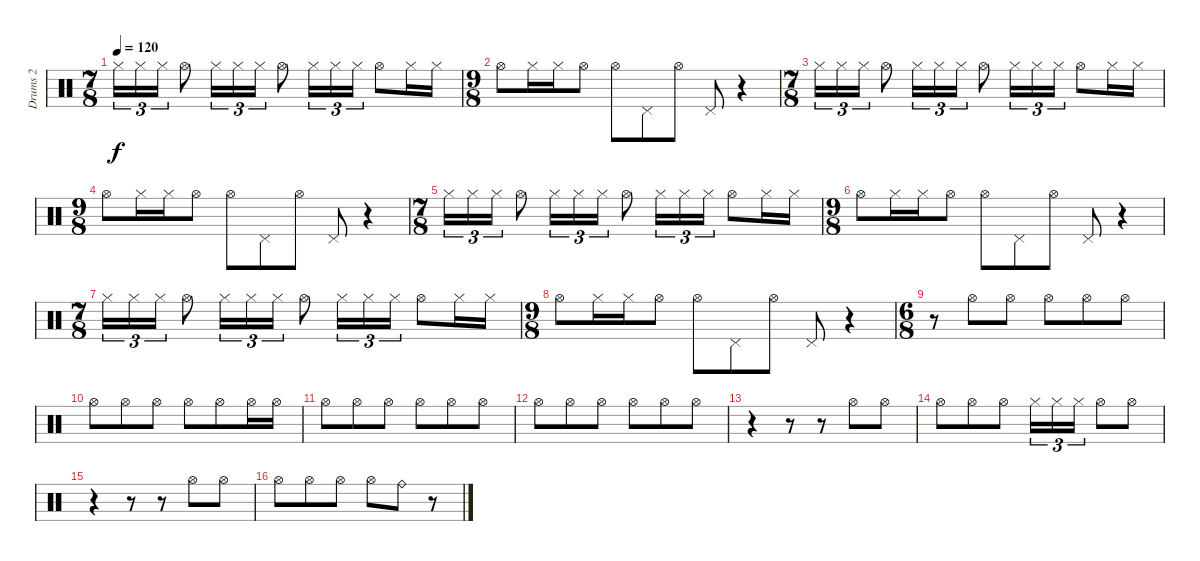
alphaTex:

\track ("Drums 2" "Drums 2") {instrument percussion}
\staff {score}
\articulation defaults
\ts (7 8)
\tempo 120
\clef neutral
\ks c "Hi-Hat (closed)".16{tu (3 2) dy f} "Hi-Hat (closed)".16{tu (3 2)} "Hi-Hat (closed)".16{tu (3 2)} "Hi-Hat (open)".8 "Hi-Hat (closed)".16{tu (3 2)} "Hi-Hat (closed)".16{tu (3 2)} "Hi-Hat (closed)".16{tu (3 2)} "Hi-Hat (open)".8 "Hi-Hat (closed)".16{tu (3 2)} "Hi-Hat (closed)".16{tu (3 2)} "Hi-Hat (closed)".16{tu (3 2)} "Hi-Hat (open)".8 "Hi-Hat (closed)".16 "Hi-Hat (closed)".16
|
\ts (9 8)
"Hi-Hat (open)".8 "Hi-Hat (closed)".16 "Hi-Hat (closed)".16 "Hi-Hat (open)".8 "Hi-Hat (open)".8 "Pedal Hi-Hat (hit)".8 "Hi-Hat (open)".8 "Pedal Hi-Hat (hit)".8 r.4 |
\ts (7 8)
"Hi-Hat (closed)".16{tu (3 2)} "Hi-Hat (closed)".16{tu (3 2)} "Hi-Hat (closed)".16{tu (3 2)} "Hi-Hat (open)".8 "Hi-Hat (closed)".16{tu (3 2)} "Hi-Hat (closed)".16{tu (3 2)} "Hi-Hat (closed)".16{tu (3 2)} "Hi-Hat (open)".8 "Hi-Hat (closed)".16{tu (3 2)} "Hi-Hat (closed)".16{tu (3 2)} "Hi-Hat (closed)".16{tu (3 2)} "Hi-Hat (open)".8 "Hi-Hat (closed)".16 "Hi-Hat (closed)".16 |
\ts (9 8)
"Hi-Hat (open)".8 "Hi-Hat (closed)".16 "Hi-Hat (closed)".16 "Hi-Hat (open)".8 "Hi-Hat (open)".8 "Pedal Hi-Hat (hit)".8 "Hi-Hat (open)".8 "Pedal Hi-Hat (hit)".8 r.4 |
\ts (7 8)
"Hi-Hat (closed)".16{tu (3 2)} "Hi-Hat (closed)".16{tu (3 2)} "Hi-Hat (closed)".16{tu (3 2)} "Hi-Hat (open)".8 "Hi-Hat (closed)".16{tu (3 2)} "Hi-Hat (closed)".16{tu (3 2)} "Hi-Hat (closed)".16{tu (3 2)} "Hi-Hat (open)".8 "Hi-Hat (closed)".16{tu (3 2)} "Hi-Hat (closed)".16{tu (3 2)} "Hi-Hat (closed)".16{tu (3 2)} "Hi-Hat (open)".8 "Hi-Hat (closed)".16 "Hi-Hat (closed)".16 |
\ts (9 8)
"Hi-Hat (open)".8 "Hi-Hat (closed)".16 "Hi-Hat (closed)".16 "Hi-Hat (open)".8 "Hi-Hat (open)".8 "Pedal Hi-Hat (hit)".8 "Hi-Hat (open)".8 "Pedal Hi-Hat (hit)".8 r.4 |
\ts (7 8)
"Hi-Hat (closed)".16{tu (3 2)} "Hi-Hat (closed)".16{tu (3 2)} "Hi-Hat (closed)".16{tu (3 2)} "Hi-Hat (open)".8 "Hi-Hat (closed)".16{tu (3 2)} "Hi-Hat (closed)".16{tu (3 2)} "Hi-Hat (closed)".16{tu (3 2)} "Hi-Hat (open)".8 "Hi-Hat (closed)".16{tu (3 2)} "Hi-Hat (closed)".16{tu (3 2)} "Hi-Hat (closed)".16{tu (3 2)} "Hi-Hat (open)".8 "Hi-Hat (closed)".16 "Hi-Hat (closed)".16 |
\ts (9 8)
"Hi-Hat (open)".8 "Hi-Hat (closed)".16 "Hi-Hat (closed)".16 "Hi-Hat (open)".8 "Hi-Hat (open)".8 "Pedal Hi-Hat (hit)".8 "Hi-Hat (open)".8 "Pedal Hi-Hat (hit)".8 r.4 |
\ts (6 8)
r.8 "Hi-Hat (open)".8 "Hi-Hat (open)".8 "Hi-Hat (open)".8 "Hi-Hat (open)".8 "Hi-Hat (open)".8 |
"Hi-Hat (open)".8 "Hi-Hat (open)".8 "Hi-Hat (open)".8 "Hi-Hat (open)".8 "Hi-Hat (open)".8 "Hi-Hat (open)".16 "Hi-Hat (open)".16 |
"Hi-Hat (open)".8 "Hi-Hat (open)".8 "Hi-Hat (open)".8 "Hi-Hat (open)".8 "Hi-Hat (open)".8 "Hi-Hat (open)".8 |
"Hi-Hat (open)".8 "Hi-Hat (open)".8 "Hi-Hat (open)".8 "Hi-Hat (open)".8 "Hi-Hat (open)".8 "Hi-Hat (open)".8 |
r.4 r.8 r.8 "Hi-Hat (open)".8 "Hi-Hat (open)".8 |
"Hi-Hat (open)".8 "Hi-Hat (open)".8 "Hi-Hat (open)".8 "Hi-Hat (closed)".16{tu (3 2)} "Hi-Hat (closed)".16{tu (3 2)} "Hi-Hat (closed)".16{tu (3 2)} "Hi-Hat (open)".8 "Hi-Hat (open)".8 |
r.4 r.8 r.8 "Hi-Hat (open)".8 "Hi-Hat (open)".8 |
"Hi-Hat (open)".8 "Hi-Hat (open)".8 "Hi-Hat (open)".8 "Hi-Hat (open)".8 "Ride (bell)".8 r.8
